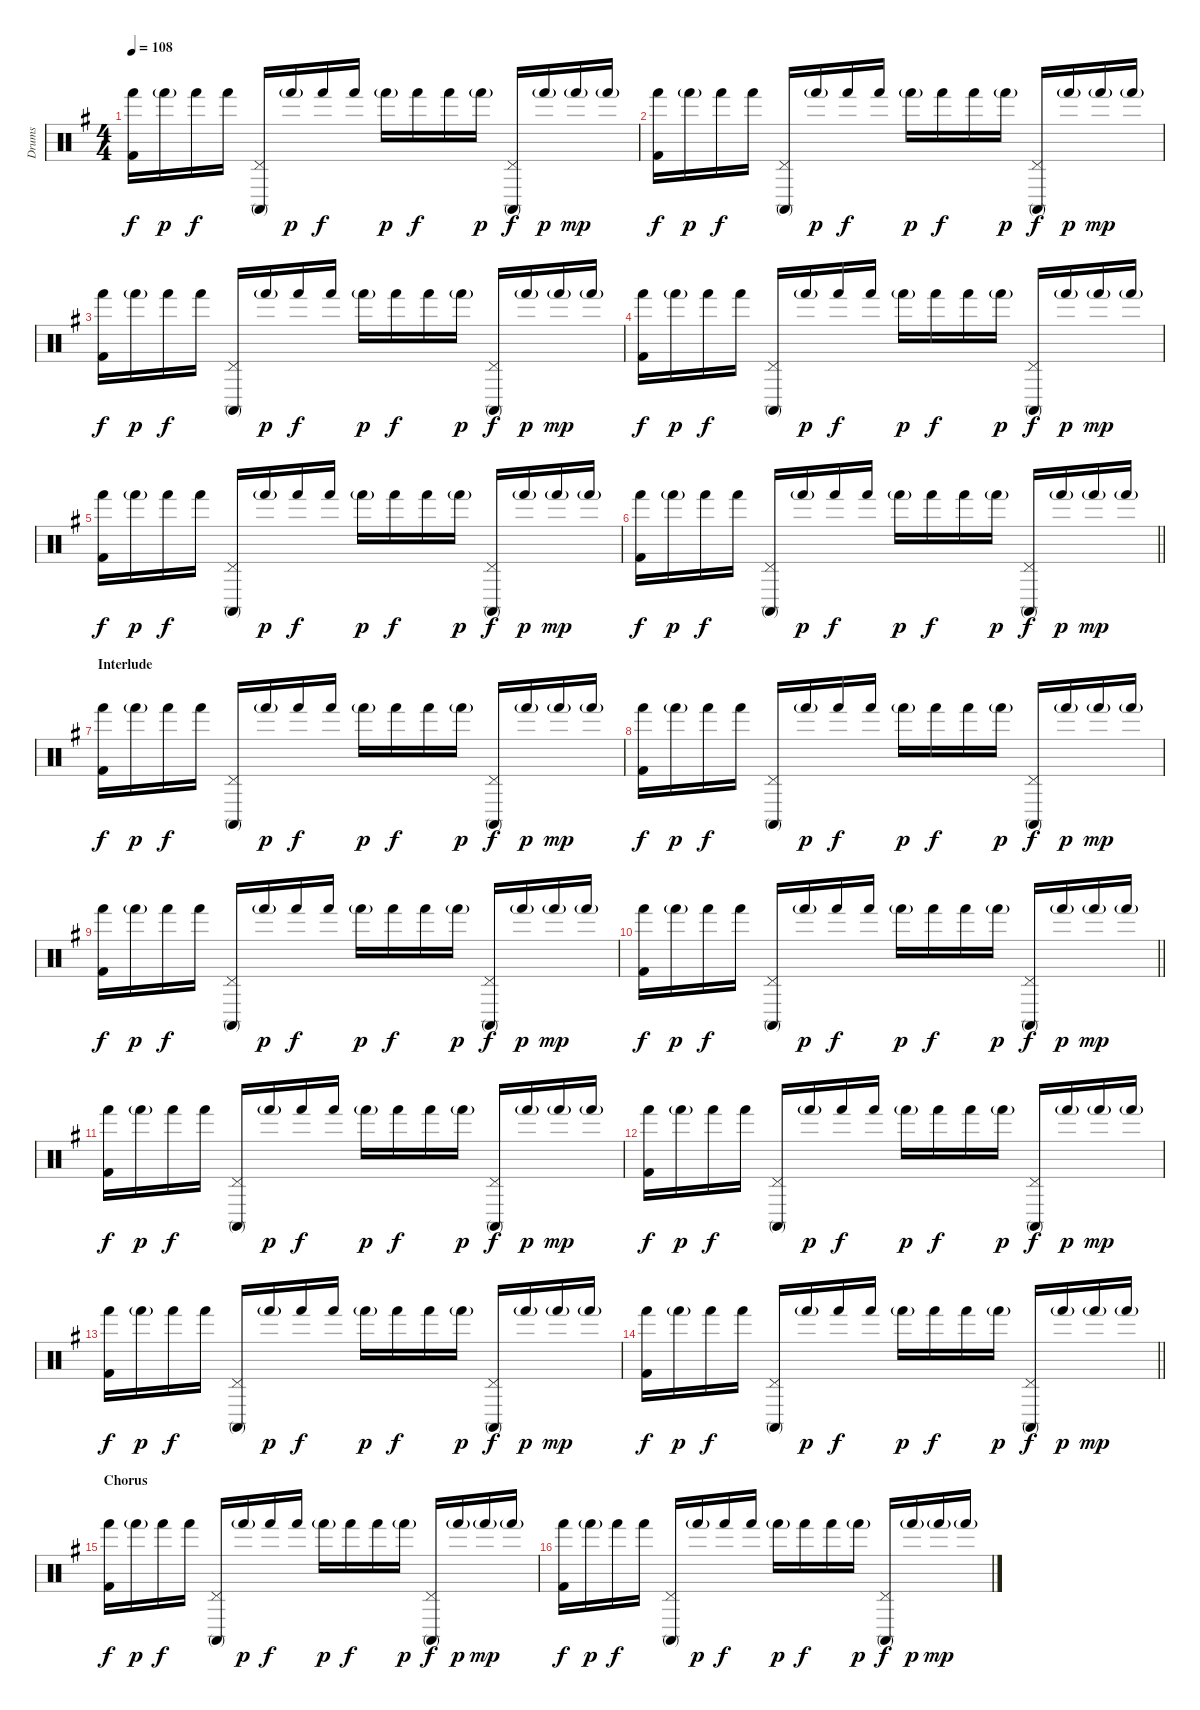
\track ("Drums" "Drums") {instrument percussion}
\staff {score}
\articulation defaults
\ts (4 4)
\tempo 108
\clef neutral
\ks eminor
("Hand (hit)" "Kick (hit) 2").16{dy f} "Hand (hit)"{g}.16{dy p} "Hand (hit)".16{dy f} "Hand (hit)".16 ("Pedal Hi-Hat (hit)" "Conga high (mute)").16 "Hand (hit)"{g}.16{dy p} "Hand (hit)".16{dy f} "Hand (hit)".16 "Hand (hit)"{g}.16{dy p} "Hand (hit)".16{dy f} "Hand (hit)".16 "Hand (hit)"{g}.16{dy p} ("Pedal Hi-Hat (hit)" "Conga high (mute)").16{dy f} "Hand (hit)"{g}.16{dy p} "Hand (hit)"{g}.16{dy mp} "Hand (hit)"{g}.16 |
("Hand (hit)" "Kick (hit) 2").16{dy f} "Hand (hit)"{g}.16{dy p} "Hand (hit)".16{dy f} "Hand (hit)".16 ("Pedal Hi-Hat (hit)" "Conga high (mute)").16 "Hand (hit)"{g}.16{dy p} "Hand (hit)".16{dy f} "Hand (hit)".16 "Hand (hit)"{g}.16{dy p} "Hand (hit)".16{dy f} "Hand (hit)".16 "Hand (hit)"{g}.16{dy p} ("Pedal Hi-Hat (hit)" "Conga high (mute)").16{dy f} "Hand (hit)"{g}.16{dy p} "Hand (hit)"{g}.16{dy mp} "Hand (hit)"{g}.16 |
("Hand (hit)" "Kick (hit) 2").16{dy f} "Hand (hit)"{g}.16{dy p} "Hand (hit)".16{dy f} "Hand (hit)".16 ("Pedal Hi-Hat (hit)" "Conga high (mute)").16 "Hand (hit)"{g}.16{dy p} "Hand (hit)".16{dy f} "Hand (hit)".16 "Hand (hit)"{g}.16{dy p} "Hand (hit)".16{dy f} "Hand (hit)".16 "Hand (hit)"{g}.16{dy p} ("Pedal Hi-Hat (hit)" "Conga high (mute)").16{dy f} "Hand (hit)"{g}.16{dy p} "Hand (hit)"{g}.16{dy mp} "Hand (hit)"{g}.16 |
("Hand (hit)" "Kick (hit) 2").16{dy f} "Hand (hit)"{g}.16{dy p} "Hand (hit)".16{dy f} "Hand (hit)".16 ("Pedal Hi-Hat (hit)" "Conga high (mute)").16 "Hand (hit)"{g}.16{dy p} "Hand (hit)".16{dy f} "Hand (hit)".16 "Hand (hit)"{g}.16{dy p} "Hand (hit)".16{dy f} "Hand (hit)".16 "Hand (hit)"{g}.16{dy p} ("Pedal Hi-Hat (hit)" "Conga high (mute)").16{dy f} "Hand (hit)"{g}.16{dy p} "Hand (hit)"{g}.16{dy mp} "Hand (hit)"{g}.16 |
("Hand (hit)" "Kick (hit) 2").16{dy f} "Hand (hit)"{g}.16{dy p} "Hand (hit)".16{dy f} "Hand (hit)".16 ("Pedal Hi-Hat (hit)" "Conga high (mute)").16 "Hand (hit)"{g}.16{dy p} "Hand (hit)".16{dy f} "Hand (hit)".16 "Hand (hit)"{g}.16{dy p} "Hand (hit)".16{dy f} "Hand (hit)".16 "Hand (hit)"{g}.16{dy p} ("Pedal Hi-Hat (hit)" "Conga high (mute)").16{dy f} "Hand (hit)"{g}.16{dy p} "Hand (hit)"{g}.16{dy mp} "Hand (hit)"{g}.16 |
\barLineRight lightlight
("Hand (hit)" "Kick (hit) 2").16{dy f} "Hand (hit)"{g}.16{dy p} "Hand (hit)".16{dy f} "Hand (hit)".16 ("Pedal Hi-Hat (hit)" "Conga high (mute)").16 "Hand (hit)"{g}.16{dy p} "Hand (hit)".16{dy f} "Hand (hit)".16 "Hand (hit)"{g}.16{dy p} "Hand (hit)".16{dy f} "Hand (hit)".16 "Hand (hit)"{g}.16{dy p} ("Pedal Hi-Hat (hit)" "Conga high (mute)").16{dy f} "Hand (hit)"{g}.16{dy p} "Hand (hit)"{g}.16{dy mp} "Hand (hit)"{g}.16 |
\section ("" "Interlude")
("Hand (hit)" "Kick (hit) 2").16{dy f} "Hand (hit)"{g}.16{dy p} "Hand (hit)".16{dy f} "Hand (hit)".16 ("Pedal Hi-Hat (hit)" "Conga high (mute)").16 "Hand (hit)"{g}.16{dy p} "Hand (hit)".16{dy f} "Hand (hit)".16 "Hand (hit)"{g}.16{dy p} "Hand (hit)".16{dy f} "Hand (hit)".16 "Hand (hit)"{g}.16{dy p} ("Pedal Hi-Hat (hit)" "Conga high (mute)").16{dy f} "Hand (hit)"{g}.16{dy p} "Hand (hit)"{g}.16{dy mp} "Hand (hit)"{g}.16 |
("Hand (hit)" "Kick (hit) 2").16{dy f} "Hand (hit)"{g}.16{dy p} "Hand (hit)".16{dy f} "Hand (hit)".16 ("Pedal Hi-Hat (hit)" "Conga high (mute)").16 "Hand (hit)"{g}.16{dy p} "Hand (hit)".16{dy f} "Hand (hit)".16 "Hand (hit)"{g}.16{dy p} "Hand (hit)".16{dy f} "Hand (hit)".16 "Hand (hit)"{g}.16{dy p} ("Pedal Hi-Hat (hit)" "Conga high (mute)").16{dy f} "Hand (hit)"{g}.16{dy p} "Hand (hit)"{g}.16{dy mp} "Hand (hit)"{g}.16 |
("Hand (hit)" "Kick (hit) 2").16{dy f} "Hand (hit)"{g}.16{dy p} "Hand (hit)".16{dy f} "Hand (hit)".16 ("Pedal Hi-Hat (hit)" "Conga high (mute)").16 "Hand (hit)"{g}.16{dy p} "Hand (hit)".16{dy f} "Hand (hit)".16 "Hand (hit)"{g}.16{dy p} "Hand (hit)".16{dy f} "Hand (hit)".16 "Hand (hit)"{g}.16{dy p} ("Pedal Hi-Hat (hit)" "Conga high (mute)").16{dy f} "Hand (hit)"{g}.16{dy p} "Hand (hit)"{g}.16{dy mp} "Hand (hit)"{g}.16 |
\barLineRight lightlight
("Hand (hit)" "Kick (hit) 2").16{dy f} "Hand (hit)"{g}.16{dy p} "Hand (hit)".16{dy f} "Hand (hit)".16 ("Pedal Hi-Hat (hit)" "Conga high (mute)").16 "Hand (hit)"{g}.16{dy p} "Hand (hit)".16{dy f} "Hand (hit)".16 "Hand (hit)"{g}.16{dy p} "Hand (hit)".16{dy f} "Hand (hit)".16 "Hand (hit)"{g}.16{dy p} ("Pedal Hi-Hat (hit)" "Conga high (mute)").16{dy f} "Hand (hit)"{g}.16{dy p} "Hand (hit)"{g}.16{dy mp} "Hand (hit)"{g}.16 |
("Hand (hit)" "Kick (hit) 2").16{dy f} "Hand (hit)"{g}.16{dy p} "Hand (hit)".16{dy f} "Hand (hit)".16 ("Pedal Hi-Hat (hit)" "Conga high (mute)").16 "Hand (hit)"{g}.16{dy p} "Hand (hit)".16{dy f} "Hand (hit)".16 "Hand (hit)"{g}.16{dy p} "Hand (hit)".16{dy f} "Hand (hit)".16 "Hand (hit)"{g}.16{dy p} ("Pedal Hi-Hat (hit)" "Conga high (mute)").16{dy f} "Hand (hit)"{g}.16{dy p} "Hand (hit)"{g}.16{dy mp} "Hand (hit)"{g}.16 |
("Hand (hit)" "Kick (hit) 2").16{dy f} "Hand (hit)"{g}.16{dy p} "Hand (hit)".16{dy f} "Hand (hit)".16 ("Pedal Hi-Hat (hit)" "Conga high (mute)").16 "Hand (hit)"{g}.16{dy p} "Hand (hit)".16{dy f} "Hand (hit)".16 "Hand (hit)"{g}.16{dy p} "Hand (hit)".16{dy f} "Hand (hit)".16 "Hand (hit)"{g}.16{dy p} ("Pedal Hi-Hat (hit)" "Conga high (mute)").16{dy f} "Hand (hit)"{g}.16{dy p} "Hand (hit)"{g}.16{dy mp} "Hand (hit)"{g}.16 |
("Hand (hit)" "Kick (hit) 2").16{dy f} "Hand (hit)"{g}.16{dy p} "Hand (hit)".16{dy f} "Hand (hit)".16 ("Pedal Hi-Hat (hit)" "Conga high (mute)").16 "Hand (hit)"{g}.16{dy p} "Hand (hit)".16{dy f} "Hand (hit)".16 "Hand (hit)"{g}.16{dy p} "Hand (hit)".16{dy f} "Hand (hit)".16 "Hand (hit)"{g}.16{dy p} ("Pedal Hi-Hat (hit)" "Conga high (mute)").16{dy f} "Hand (hit)"{g}.16{dy p} "Hand (hit)"{g}.16{dy mp} "Hand (hit)"{g}.16 |
\barLineRight lightlight
("Hand (hit)" "Kick (hit) 2").16{dy f} "Hand (hit)"{g}.16{dy p} "Hand (hit)".16{dy f} "Hand (hit)".16 ("Pedal Hi-Hat (hit)" "Conga high (mute)").16 "Hand (hit)"{g}.16{dy p} "Hand (hit)".16{dy f} "Hand (hit)".16 "Hand (hit)"{g}.16{dy p} "Hand (hit)".16{dy f} "Hand (hit)".16 "Hand (hit)"{g}.16{dy p} ("Pedal Hi-Hat (hit)" "Conga high (mute)").16{dy f} "Hand (hit)"{g}.16{dy p} "Hand (hit)"{g}.16{dy mp} "Hand (hit)"{g}.16 |
\section ("" "Chorus")
("Hand (hit)" "Kick (hit) 2").16{dy f} "Hand (hit)"{g}.16{dy p} "Hand (hit)".16{dy f} "Hand (hit)".16 ("Pedal Hi-Hat (hit)" "Conga high (mute)").16 "Hand (hit)"{g}.16{dy p} "Hand (hit)".16{dy f} "Hand (hit)".16 "Hand (hit)"{g}.16{dy p} "Hand (hit)".16{dy f} "Hand (hit)".16 "Hand (hit)"{g}.16{dy p} ("Pedal Hi-Hat (hit)" "Conga high (mute)").16{dy f} "Hand (hit)"{g}.16{dy p} "Hand (hit)"{g}.16{dy mp} "Hand (hit)"{g}.16 |
("Hand (hit)" "Kick (hit) 2").16{dy f} "Hand (hit)"{g}.16{dy p} "Hand (hit)".16{dy f} "Hand (hit)".16 ("Pedal Hi-Hat (hit)" "Conga high (mute)").16 "Hand (hit)"{g}.16{dy p} "Hand (hit)".16{dy f} "Hand (hit)".16 "Hand (hit)"{g}.16{dy p} "Hand (hit)".16{dy f} "Hand (hit)".16 "Hand (hit)"{g}.16{dy p} ("Pedal Hi-Hat (hit)" "Conga high (mute)").16{dy f} "Hand (hit)"{g}.16{dy p} "Hand (hit)"{g}.16{dy mp} "Hand (hit)"{g}.16
